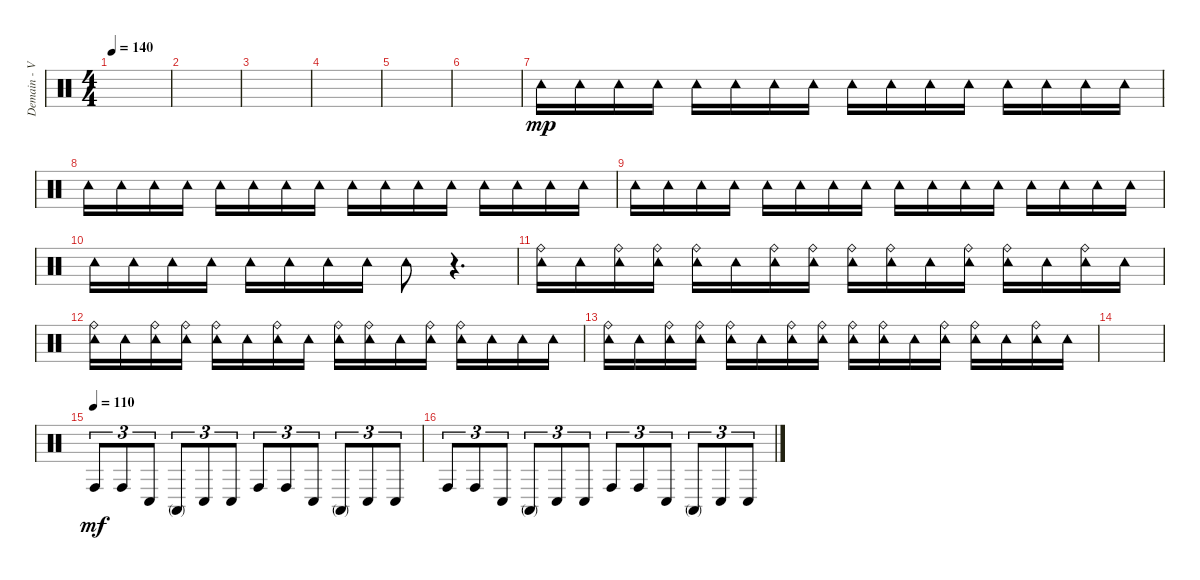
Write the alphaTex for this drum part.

\track ("Demain - Various Perc." "Demain - V") {instrument percussion}
\staff {score}
\articulation defaults
\ts (4 4)
\tempo 140
\clef neutral
\ks c
|
|
|
|
|
|
"Tambourine (hit)".16{dy mp} "Tambourine (hit)".16 "Tambourine (hit)".16 "Tambourine (hit)".16 "Tambourine (hit)".16 "Tambourine (hit)".16 "Tambourine (hit)".16 "Tambourine (hit)".16 "Tambourine (hit)".16 "Tambourine (hit)".16 "Tambourine (hit)".16 "Tambourine (hit)".16 "Tambourine (hit)".16 "Tambourine (hit)".16 "Tambourine (hit)".16 "Tambourine (hit)".16 |
"Tambourine (hit)".16 "Tambourine (hit)".16 "Tambourine (hit)".16 "Tambourine (hit)".16 "Tambourine (hit)".16 "Tambourine (hit)".16 "Tambourine (hit)".16 "Tambourine (hit)".16 "Tambourine (hit)".16 "Tambourine (hit)".16 "Tambourine (hit)".16 "Tambourine (hit)".16 "Tambourine (hit)".16 "Tambourine (hit)".16 "Tambourine (hit)".16 "Tambourine (hit)".16 |
"Tambourine (hit)".16 "Tambourine (hit)".16 "Tambourine (hit)".16 "Tambourine (hit)".16 "Tambourine (hit)".16 "Tambourine (hit)".16 "Tambourine (hit)".16 "Tambourine (hit)".16 "Tambourine (hit)".16 "Tambourine (hit)".16 "Tambourine (hit)".16 "Tambourine (hit)".16 "Tambourine (hit)".16 "Tambourine (hit)".16 "Tambourine (hit)".16 "Tambourine (hit)".16 |
"Tambourine (hit)".16 "Tambourine (hit)".16 "Tambourine (hit)".16 "Tambourine (hit)".16 "Tambourine (hit)".16 "Tambourine (hit)".16 "Tambourine (hit)".16 "Tambourine (hit)".16 "Tambourine (hit)".8 r.4{d} |
("Tambourine (hit)" "Ride (bell)").16 "Tambourine (hit)".16 ("Tambourine (hit)" "Ride (bell)").16 ("Tambourine (hit)" "Ride (bell)").16 ("Tambourine (hit)" "Ride (bell)").16 "Tambourine (hit)".16 ("Tambourine (hit)" "Ride (bell)").16 ("Tambourine (hit)" "Ride (bell)").16 ("Tambourine (hit)" "Ride (bell)").16 ("Tambourine (hit)" "Ride (bell)").16 "Tambourine (hit)".16 ("Tambourine (hit)" "Ride (bell)").16 ("Tambourine (hit)" "Ride (bell)").16 "Tambourine (hit)".16 ("Tambourine (hit)" "Ride (bell)").16 "Tambourine (hit)".16 |
("Tambourine (hit)" "Ride (bell)").16 "Tambourine (hit)".16 ("Tambourine (hit)" "Ride (bell)").16 ("Tambourine (hit)" "Ride (bell)").16 ("Tambourine (hit)" "Ride (bell)").16 "Tambourine (hit)".16 ("Tambourine (hit)" "Ride (bell)").16 "Tambourine (hit)".16 ("Tambourine (hit)" "Ride (bell)").16 ("Tambourine (hit)" "Ride (bell)").16 "Tambourine (hit)".16 ("Tambourine (hit)" "Ride (bell)").16 ("Tambourine (hit)" "Ride (bell)").16 "Tambourine (hit)".16 "Tambourine (hit)".16 "Tambourine (hit)".16 |
("Tambourine (hit)" "Ride (bell)").16 "Tambourine (hit)".16 ("Tambourine (hit)" "Ride (bell)").16 ("Tambourine (hit)" "Ride (bell)").16 ("Tambourine (hit)" "Ride (bell)").16 "Tambourine (hit)".16 ("Tambourine (hit)" "Ride (bell)").16 ("Tambourine (hit)" "Ride (bell)").16 ("Tambourine (hit)" "Ride (bell)").16 ("Tambourine (hit)" "Ride (bell)").16 "Tambourine (hit)".16 ("Tambourine (hit)" "Ride (bell)").16 ("Tambourine (hit)" "Ride (bell)").16 "Tambourine (hit)".16 ("Tambourine (hit)" "Ride (bell)").16 "Tambourine (hit)".16 |
|
\tempo (110)
"Conga high (hit)".8{tu (3 2) dy mf} "Conga high (hit)".8{tu (3 2)} "Conga low (hit)".8{tu (3 2)} "Conga high (mute)".8{tu (3 2)} "Conga low (hit)".8{tu (3 2)} "Conga low (hit)".8{tu (3 2)} "Conga high (hit)".8{tu (3 2)} "Conga high (hit)".8{tu (3 2)} "Conga low (hit)".8{tu (3 2)} "Conga high (mute)".8{tu (3 2)} "Conga low (hit)".8{tu (3 2)} "Conga low (hit)".8{tu (3 2)} |
"Conga high (hit)".8{tu (3 2)} "Conga high (hit)".8{tu (3 2)} "Conga low (hit)".8{tu (3 2)} "Conga high (mute)".8{tu (3 2)} "Conga low (hit)".8{tu (3 2)} "Conga low (hit)".8{tu (3 2)} "Conga high (hit)".8{tu (3 2)} "Conga high (hit)".8{tu (3 2)} "Conga low (hit)".8{tu (3 2)} "Conga high (mute)".8{tu (3 2)} "Conga low (hit)".8{tu (3 2)} "Conga low (hit)".8{tu (3 2)}
